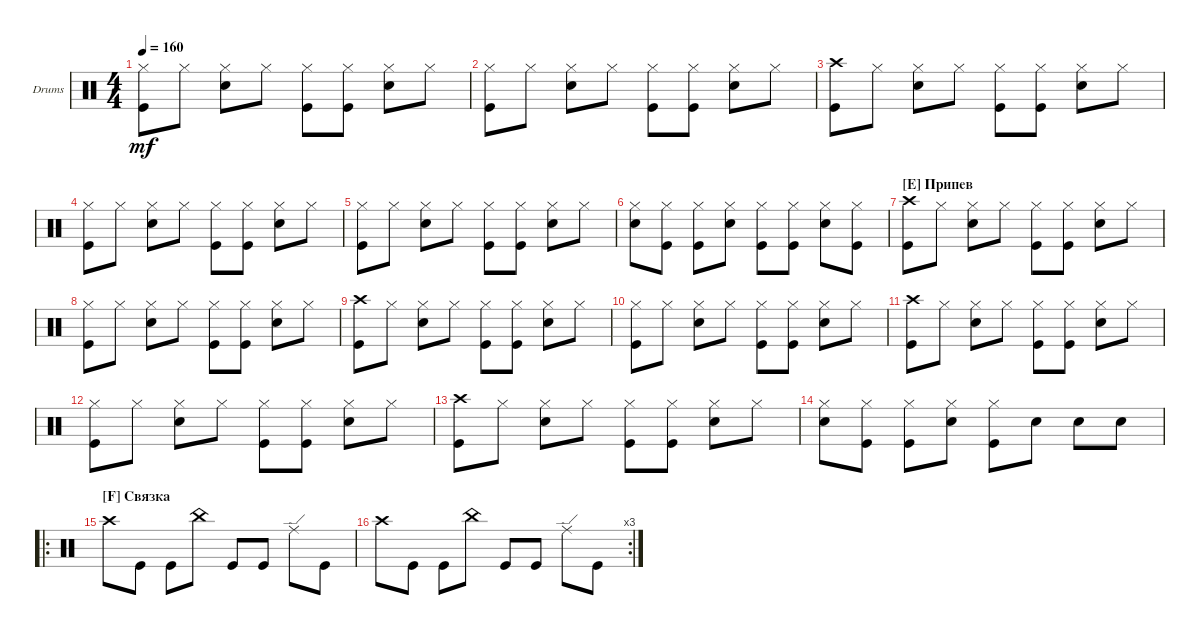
\bracketExtendMode groupsimilarinstruments
\firstSystemTrackNameOrientation horizontal
\otherSystemsTrackNameOrientation horizontal
\track ("Drumkit" "Drums") {instrument percussion}
\staff {score}
\articulation defaults
\ts (4 4)
\tempo 160
\clef neutral
\ks c
("Kick (hit)" "Hi-Hat (closed)").8{dy mf} "Hi-Hat (closed)".8 ("Hi-Hat (closed)" "Snare (hit) 2").8 "Hi-Hat (closed)".8 ("Kick (hit)" "Hi-Hat (closed)").8 ("Hi-Hat (closed)" "Kick (hit)").8 ("Hi-Hat (closed)" "Snare (hit) 2").8 "Hi-Hat (closed)".8 |
("Kick (hit)" "Hi-Hat (closed)").8 "Hi-Hat (closed)".8 ("Hi-Hat (closed)" "Snare (hit) 2").8 "Hi-Hat (closed)".8 ("Kick (hit)" "Hi-Hat (closed)").8 ("Hi-Hat (closed)" "Kick (hit)").8 ("Hi-Hat (closed)" "Snare (hit) 2").8 "Hi-Hat (closed)".8 |
("Kick (hit)" "Crash high (hit)").8 "Hi-Hat (closed)".8 ("Hi-Hat (closed)" "Snare (hit) 2").8 "Hi-Hat (closed)".8 ("Kick (hit)" "Hi-Hat (closed)").8 ("Hi-Hat (closed)" "Kick (hit)").8 ("Hi-Hat (closed)" "Snare (hit) 2").8 "Hi-Hat (closed)".8 |
("Kick (hit)" "Hi-Hat (closed)").8 "Hi-Hat (closed)".8 ("Hi-Hat (closed)" "Snare (hit) 2").8 "Hi-Hat (closed)".8 ("Kick (hit)" "Hi-Hat (closed)").8 ("Hi-Hat (closed)" "Kick (hit)").8 ("Hi-Hat (closed)" "Snare (hit) 2").8 "Hi-Hat (closed)".8 |
("Kick (hit)" "Hi-Hat (closed)").8 "Hi-Hat (closed)".8 ("Hi-Hat (closed)" "Snare (hit) 2").8 "Hi-Hat (closed)".8 ("Kick (hit)" "Hi-Hat (closed)").8 ("Hi-Hat (closed)" "Kick (hit)").8 ("Hi-Hat (closed)" "Snare (hit) 2").8 "Hi-Hat (closed)".8 |
("Hi-Hat (closed)" "Snare (hit) 2").8 ("Hi-Hat (closed)" "Kick (hit)").8 ("Hi-Hat (closed)" "Kick (hit)").8 ("Hi-Hat (closed)" "Snare (hit) 2").8 ("Kick (hit)" "Hi-Hat (closed)").8 ("Hi-Hat (closed)" "Kick (hit)").8 ("Hi-Hat (closed)" "Snare (hit) 2").8 ("Hi-Hat (closed)" "Kick (hit)").8 |
\section ("E" "Припев")
("Kick (hit)" "Crash high (hit)").8 "Hi-Hat (closed)".8 ("Hi-Hat (closed)" "Snare (hit) 2").8 "Hi-Hat (closed)".8 ("Kick (hit)" "Hi-Hat (closed)").8 ("Hi-Hat (closed)" "Kick (hit)").8 ("Hi-Hat (closed)" "Snare (hit) 2").8 "Hi-Hat (closed)".8 |
("Kick (hit)" "Hi-Hat (closed)").8 "Hi-Hat (closed)".8 ("Hi-Hat (closed)" "Snare (hit) 2").8 "Hi-Hat (closed)".8 ("Kick (hit)" "Hi-Hat (closed)").8 ("Hi-Hat (closed)" "Kick (hit)").8 ("Hi-Hat (closed)" "Snare (hit) 2").8 "Hi-Hat (closed)".8 |
("Kick (hit)" "Crash high (hit)").8 "Hi-Hat (closed)".8 ("Hi-Hat (closed)" "Snare (hit) 2").8 "Hi-Hat (closed)".8 ("Kick (hit)" "Hi-Hat (closed)").8 ("Hi-Hat (closed)" "Kick (hit)").8 ("Hi-Hat (closed)" "Snare (hit) 2").8 "Hi-Hat (closed)".8 |
("Kick (hit)" "Hi-Hat (closed)").8 "Hi-Hat (closed)".8 ("Hi-Hat (closed)" "Snare (hit) 2").8 "Hi-Hat (closed)".8 ("Kick (hit)" "Hi-Hat (closed)").8 ("Hi-Hat (closed)" "Kick (hit)").8 ("Hi-Hat (closed)" "Snare (hit) 2").8 "Hi-Hat (closed)".8 |
("Kick (hit)" "Crash high (hit)").8 "Hi-Hat (closed)".8 ("Hi-Hat (closed)" "Snare (hit) 2").8 "Hi-Hat (closed)".8 ("Kick (hit)" "Hi-Hat (closed)").8 ("Hi-Hat (closed)" "Kick (hit)").8 ("Hi-Hat (closed)" "Snare (hit) 2").8 "Hi-Hat (closed)".8 |
("Kick (hit)" "Hi-Hat (closed)").8 "Hi-Hat (closed)".8 ("Hi-Hat (closed)" "Snare (hit) 2").8 "Hi-Hat (closed)".8 ("Kick (hit)" "Hi-Hat (closed)").8 ("Hi-Hat (closed)" "Kick (hit)").8 ("Hi-Hat (closed)" "Snare (hit) 2").8 "Hi-Hat (closed)".8 |
("Kick (hit)" "Crash high (hit)").8 "Hi-Hat (closed)".8 ("Hi-Hat (closed)" "Snare (hit) 2").8 "Hi-Hat (closed)".8 ("Kick (hit)" "Hi-Hat (closed)").8 ("Hi-Hat (closed)" "Kick (hit)").8 ("Hi-Hat (closed)" "Snare (hit) 2").8 "Hi-Hat (closed)".8 |
("Hi-Hat (closed)" "Snare (hit) 2").8 ("Hi-Hat (closed)" "Kick (hit)").8 ("Hi-Hat (closed)" "Kick (hit)").8 ("Hi-Hat (closed)" "Snare (hit) 2").8 ("Kick (hit)" "Hi-Hat (closed)").8 "Snare (hit) 2".8 "Snare (hit) 2".8 "Snare (hit) 2".8 |
\ro
\section ("F" "Связка")
"Crash high (hit)".8 "Kick (hit)".8 "Kick (hit)".8 "China (hit)".8 "Kick (hit)".8 "Kick (hit)".8 "Ride (edge)".8 "Kick (hit)".8 |
\rc 3 "Crash high (hit)".8 "Kick (hit)".8 "Kick (hit)".8 "China (hit)".8 "Kick (hit)".8 "Kick (hit)".8 "Ride (edge)".8 "Kick (hit)".8
